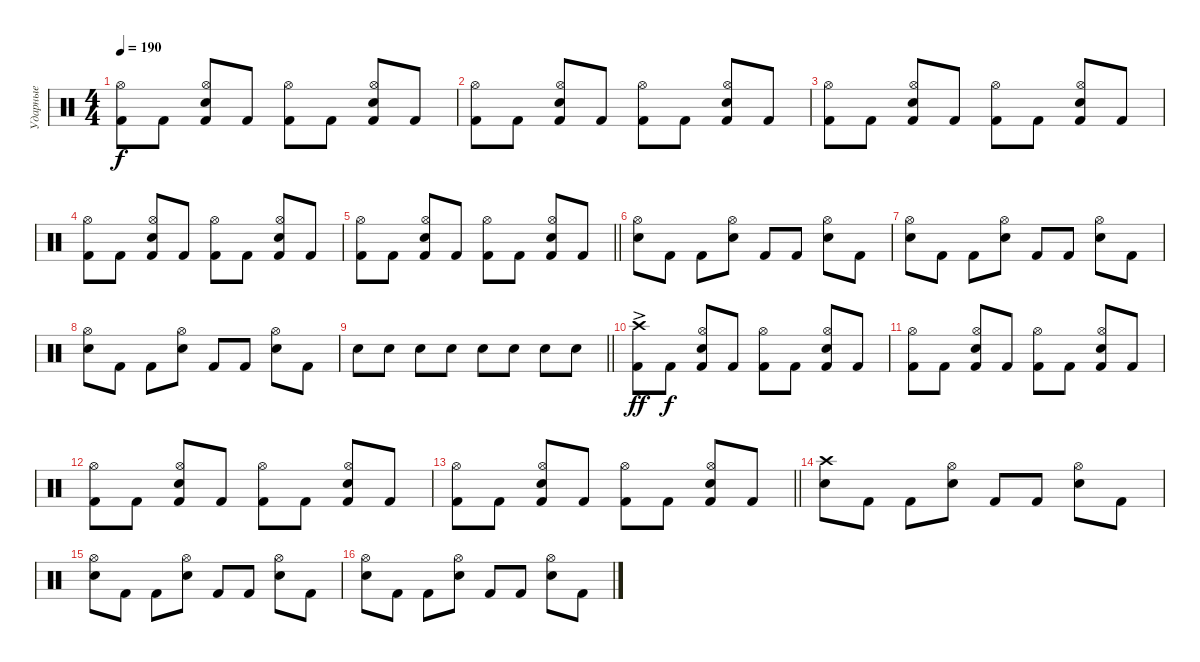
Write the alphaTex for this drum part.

\track ("Ударные" "Ударные") {instrument percussion}
\staff
\articulation defaults
\ts (4 4)
\tempo 190
\clef neutral
\ks c
("Kick (hit) 2" "Hi-Hat (open)").8{dy f} "Kick (hit) 2".8 ("Kick (hit) 2" "Snare (hit) 2" "Hi-Hat (open)").8 "Kick (hit) 2".8 ("Kick (hit) 2" "Hi-Hat (open)").8 "Kick (hit) 2".8 ("Kick (hit) 2" "Snare (hit) 2" "Hi-Hat (open)").8 "Kick (hit) 2".8 |
("Kick (hit) 2" "Hi-Hat (open)").8 "Kick (hit) 2".8 ("Kick (hit) 2" "Snare (hit) 2" "Hi-Hat (open)").8 "Kick (hit) 2".8 ("Kick (hit) 2" "Hi-Hat (open)").8 "Kick (hit) 2".8 ("Kick (hit) 2" "Snare (hit) 2" "Hi-Hat (open)").8 "Kick (hit) 2".8 |
("Kick (hit) 2" "Hi-Hat (open)").8 "Kick (hit) 2".8 ("Kick (hit) 2" "Snare (hit) 2" "Hi-Hat (open)").8 "Kick (hit) 2".8 ("Kick (hit) 2" "Hi-Hat (open)").8 "Kick (hit) 2".8 ("Kick (hit) 2" "Snare (hit) 2" "Hi-Hat (open)").8 "Kick (hit) 2".8 |
("Kick (hit) 2" "Hi-Hat (open)").8 "Kick (hit) 2".8 ("Kick (hit) 2" "Snare (hit) 2" "Hi-Hat (open)").8 "Kick (hit) 2".8 ("Kick (hit) 2" "Hi-Hat (open)").8 "Kick (hit) 2".8 ("Kick (hit) 2" "Snare (hit) 2" "Hi-Hat (open)").8 "Kick (hit) 2".8 |
\barLineRight lightlight
("Kick (hit) 2" "Hi-Hat (open)").8 "Kick (hit) 2".8 ("Kick (hit) 2" "Snare (hit) 2" "Hi-Hat (open)").8 "Kick (hit) 2".8 ("Kick (hit) 2" "Hi-Hat (open)").8 "Kick (hit) 2".8 ("Kick (hit) 2" "Snare (hit) 2" "Hi-Hat (open)").8 "Kick (hit) 2".8 |
("Snare (hit) 2" "Hi-Hat (open)").8 "Kick (hit) 2".8 "Kick (hit) 2".8 ("Snare (hit) 2" "Hi-Hat (open)").8 "Kick (hit) 2".8 "Kick (hit) 2".8 ("Snare (hit) 2" "Hi-Hat (open)").8 "Kick (hit) 2".8 |
("Snare (hit) 2" "Hi-Hat (open)").8 "Kick (hit) 2".8 "Kick (hit) 2".8 ("Snare (hit) 2" "Hi-Hat (open)").8 "Kick (hit) 2".8 "Kick (hit) 2".8 ("Snare (hit) 2" "Hi-Hat (open)").8 "Kick (hit) 2".8 |
("Snare (hit) 2" "Hi-Hat (open)").8 "Kick (hit) 2".8 "Kick (hit) 2".8 ("Snare (hit) 2" "Hi-Hat (open)").8 "Kick (hit) 2".8 "Kick (hit) 2".8 ("Snare (hit) 2" "Hi-Hat (open)").8 "Kick (hit) 2".8 |
\barLineRight lightlight "Snare (hit) 2".8 "Snare (hit) 2".8 "Snare (hit) 2".8 "Snare (hit) 2".8 "Snare (hit) 2".8 "Snare (hit) 2".8 "Snare (hit) 2".8 "Snare (hit) 2".8
|
("Kick (hit) 2" "Crash high (hit)"{ac}).8{dy ff} "Kick (hit) 2".8{dy f} ("Kick (hit) 2" "Snare (hit) 2" "Hi-Hat (open)").8 "Kick (hit) 2".8 ("Kick (hit) 2" "Hi-Hat (open)").8 "Kick (hit) 2".8 ("Kick (hit) 2" "Snare (hit) 2" "Hi-Hat (open)").8 "Kick (hit) 2".8 |
("Kick (hit) 2" "Hi-Hat (open)").8 "Kick (hit) 2".8 ("Kick (hit) 2" "Snare (hit) 2" "Hi-Hat (open)").8 "Kick (hit) 2".8 ("Kick (hit) 2" "Hi-Hat (open)").8 "Kick (hit) 2".8 ("Kick (hit) 2" "Snare (hit) 2" "Hi-Hat (open)").8 "Kick (hit) 2".8 |
("Kick (hit) 2" "Hi-Hat (open)").8 "Kick (hit) 2".8 ("Kick (hit) 2" "Snare (hit) 2" "Hi-Hat (open)").8 "Kick (hit) 2".8 ("Kick (hit) 2" "Hi-Hat (open)").8 "Kick (hit) 2".8 ("Kick (hit) 2" "Snare (hit) 2" "Hi-Hat (open)").8 "Kick (hit) 2".8 |
\barLineRight lightlight
("Kick (hit) 2" "Hi-Hat (open)").8 "Kick (hit) 2".8 ("Kick (hit) 2" "Snare (hit) 2" "Hi-Hat (open)").8 "Kick (hit) 2".8 ("Kick (hit) 2" "Hi-Hat (open)").8 "Kick (hit) 2".8 ("Kick (hit) 2" "Snare (hit) 2" "Hi-Hat (open)").8 "Kick (hit) 2".8 |
("Snare (hit) 2" "Crash high (hit)").8 "Kick (hit) 2".8 "Kick (hit) 2".8 ("Snare (hit) 2" "Hi-Hat (open)").8 "Kick (hit) 2".8 "Kick (hit) 2".8 ("Snare (hit) 2" "Hi-Hat (open)").8 "Kick (hit) 2".8 |
("Snare (hit) 2" "Hi-Hat (open)").8 "Kick (hit) 2".8 "Kick (hit) 2".8 ("Snare (hit) 2" "Hi-Hat (open)").8 "Kick (hit) 2".8 "Kick (hit) 2".8 ("Snare (hit) 2" "Hi-Hat (open)").8 "Kick (hit) 2".8 |
("Snare (hit) 2" "Hi-Hat (open)").8 "Kick (hit) 2".8 "Kick (hit) 2".8 ("Snare (hit) 2" "Hi-Hat (open)").8 "Kick (hit) 2".8 "Kick (hit) 2".8 ("Snare (hit) 2" "Hi-Hat (open)").8 "Kick (hit) 2".8
